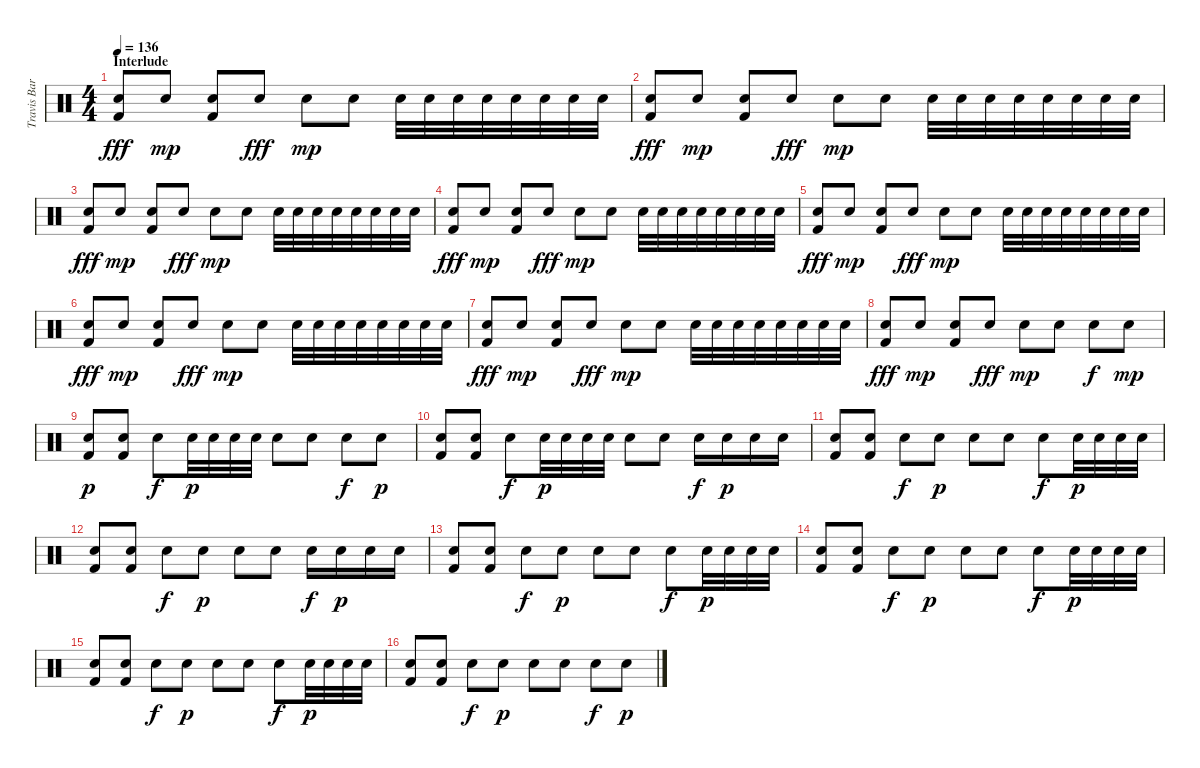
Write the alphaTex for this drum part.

\track ("Travis Barker - Drums" "Travis Bar") {instrument percussion}
\staff {score}
\articulation defaults
\ts (4 4)
\section ("" "Interlude")
\tempo 136
\clef neutral
\ks c
("Kick (hit) 2" "Snare (hit) 2").8{dy fff} "Snare (hit) 2".8{dy mp} ("Snare (hit) 2" "Kick (hit) 2").8 "Snare (hit) 2".8{dy fff} "Snare (hit) 2".8{dy mp} "Snare (hit) 2".8 "Snare (hit) 2".32 "Snare (hit) 2".32 "Snare (hit) 2".32 "Snare (hit) 2".32 "Snare (hit) 2".32 "Snare (hit) 2".32 "Snare (hit) 2".32 "Snare (hit) 2".32 |
("Kick (hit) 2" "Snare (hit) 2").8{dy fff} "Snare (hit) 2".8{dy mp} ("Snare (hit) 2" "Kick (hit) 2").8 "Snare (hit) 2".8{dy fff} "Snare (hit) 2".8{dy mp} "Snare (hit) 2".8 "Snare (hit) 2".32 "Snare (hit) 2".32 "Snare (hit) 2".32 "Snare (hit) 2".32 "Snare (hit) 2".32 "Snare (hit) 2".32 "Snare (hit) 2".32 "Snare (hit) 2".32 |
("Kick (hit) 2" "Snare (hit) 2").8{dy fff} "Snare (hit) 2".8{dy mp} ("Snare (hit) 2" "Kick (hit) 2").8 "Snare (hit) 2".8{dy fff} "Snare (hit) 2".8{dy mp} "Snare (hit) 2".8 "Snare (hit) 2".32 "Snare (hit) 2".32 "Snare (hit) 2".32 "Snare (hit) 2".32 "Snare (hit) 2".32 "Snare (hit) 2".32 "Snare (hit) 2".32 "Snare (hit) 2".32 |
("Kick (hit) 2" "Snare (hit) 2").8{dy fff} "Snare (hit) 2".8{dy mp} ("Snare (hit) 2" "Kick (hit) 2").8 "Snare (hit) 2".8{dy fff} "Snare (hit) 2".8{dy mp} "Snare (hit) 2".8 "Snare (hit) 2".32 "Snare (hit) 2".32 "Snare (hit) 2".32 "Snare (hit) 2".32 "Snare (hit) 2".32 "Snare (hit) 2".32 "Snare (hit) 2".32 "Snare (hit) 2".32 |
("Kick (hit) 2" "Snare (hit) 2").8{dy fff} "Snare (hit) 2".8{dy mp} ("Snare (hit) 2" "Kick (hit) 2").8 "Snare (hit) 2".8{dy fff} "Snare (hit) 2".8{dy mp} "Snare (hit) 2".8 "Snare (hit) 2".32 "Snare (hit) 2".32 "Snare (hit) 2".32 "Snare (hit) 2".32 "Snare (hit) 2".32 "Snare (hit) 2".32 "Snare (hit) 2".32 "Snare (hit) 2".32 |
("Kick (hit) 2" "Snare (hit) 2").8{dy fff} "Snare (hit) 2".8{dy mp} ("Snare (hit) 2" "Kick (hit) 2").8 "Snare (hit) 2".8{dy fff} "Snare (hit) 2".8{dy mp} "Snare (hit) 2".8 "Snare (hit) 2".32 "Snare (hit) 2".32 "Snare (hit) 2".32 "Snare (hit) 2".32 "Snare (hit) 2".32 "Snare (hit) 2".32 "Snare (hit) 2".32 "Snare (hit) 2".32 |
("Kick (hit) 2" "Snare (hit) 2").8{dy fff} "Snare (hit) 2".8{dy mp} ("Snare (hit) 2" "Kick (hit) 2").8 "Snare (hit) 2".8{dy fff} "Snare (hit) 2".8{dy mp} "Snare (hit) 2".8 "Snare (hit) 2".32 "Snare (hit) 2".32 "Snare (hit) 2".32 "Snare (hit) 2".32 "Snare (hit) 2".32 "Snare (hit) 2".32 "Snare (hit) 2".32 "Snare (hit) 2".32 |
("Kick (hit) 2" "Snare (hit) 2").8{dy fff} "Snare (hit) 2".8{dy mp} ("Snare (hit) 2" "Kick (hit) 2").8 "Snare (hit) 2".8{dy fff} "Snare (hit) 2".8{dy mp} "Snare (hit) 2".8 "Snare (hit) 2".8{dy f} "Snare (hit) 2".8{dy mp} |
("Kick (hit) 2" "Snare (hit) 2").8{dy p} ("Kick (hit) 2" "Snare (hit) 2").8 "Snare (hit) 2".8{dy f} "Snare (hit) 2".32{dy p} "Snare (hit) 2".32 "Snare (hit) 2".32 "Snare (hit) 2".32 "Snare (hit) 2".8 "Snare (hit) 2".8 "Snare (hit) 2".8{dy f} "Snare (hit) 2".8{dy p} |
("Kick (hit) 2" "Snare (hit) 2").8 ("Kick (hit) 2" "Snare (hit) 2").8 "Snare (hit) 2".8{dy f} "Snare (hit) 2".32{dy p} "Snare (hit) 2".32 "Snare (hit) 2".32 "Snare (hit) 2".32 "Snare (hit) 2".8 "Snare (hit) 2".8 "Snare (hit) 2".16{dy f} "Snare (hit) 2".16{dy p} "Snare (hit) 2".16 "Snare (hit) 2".16 |
("Kick (hit) 2" "Snare (hit) 2").8 ("Kick (hit) 2" "Snare (hit) 2").8 "Snare (hit) 2".8{dy f} "Snare (hit) 2".8{dy p} "Snare (hit) 2".8 "Snare (hit) 2".8 "Snare (hit) 2".8{dy f} "Snare (hit) 2".32{dy p} "Snare (hit) 2".32 "Snare (hit) 2".32 "Snare (hit) 2".32 |
("Kick (hit) 2" "Snare (hit) 2").8 ("Kick (hit) 2" "Snare (hit) 2").8 "Snare (hit) 2".8{dy f} "Snare (hit) 2".8{dy p} "Snare (hit) 2".8 "Snare (hit) 2".8 "Snare (hit) 2".16{dy f} "Snare (hit) 2".16{dy p} "Snare (hit) 2".16 "Snare (hit) 2".16 |
("Kick (hit) 2" "Snare (hit) 2").8 ("Kick (hit) 2" "Snare (hit) 2").8 "Snare (hit) 2".8{dy f} "Snare (hit) 2".8{dy p} "Snare (hit) 2".8 "Snare (hit) 2".8 "Snare (hit) 2".8{dy f} "Snare (hit) 2".32{dy p} "Snare (hit) 2".32 "Snare (hit) 2".32 "Snare (hit) 2".32 |
("Kick (hit) 2" "Snare (hit) 2").8 ("Kick (hit) 2" "Snare (hit) 2").8 "Snare (hit) 2".8{dy f} "Snare (hit) 2".8{dy p} "Snare (hit) 2".8 "Snare (hit) 2".8 "Snare (hit) 2".8{dy f} "Snare (hit) 2".32{dy p} "Snare (hit) 2".32 "Snare (hit) 2".32 "Snare (hit) 2".32 |
("Kick (hit) 2" "Snare (hit) 2").8 ("Kick (hit) 2" "Snare (hit) 2").8 "Snare (hit) 2".8{dy f} "Snare (hit) 2".8{dy p} "Snare (hit) 2".8 "Snare (hit) 2".8 "Snare (hit) 2".8{dy f} "Snare (hit) 2".32{dy p} "Snare (hit) 2".32 "Snare (hit) 2".32 "Snare (hit) 2".32 |
("Kick (hit) 2" "Snare (hit) 2").8 ("Kick (hit) 2" "Snare (hit) 2").8 "Snare (hit) 2".8{dy f} "Snare (hit) 2".8{dy p} "Snare (hit) 2".8 "Snare (hit) 2".8 "Snare (hit) 2".8{dy f} "Snare (hit) 2".8{dy p}
